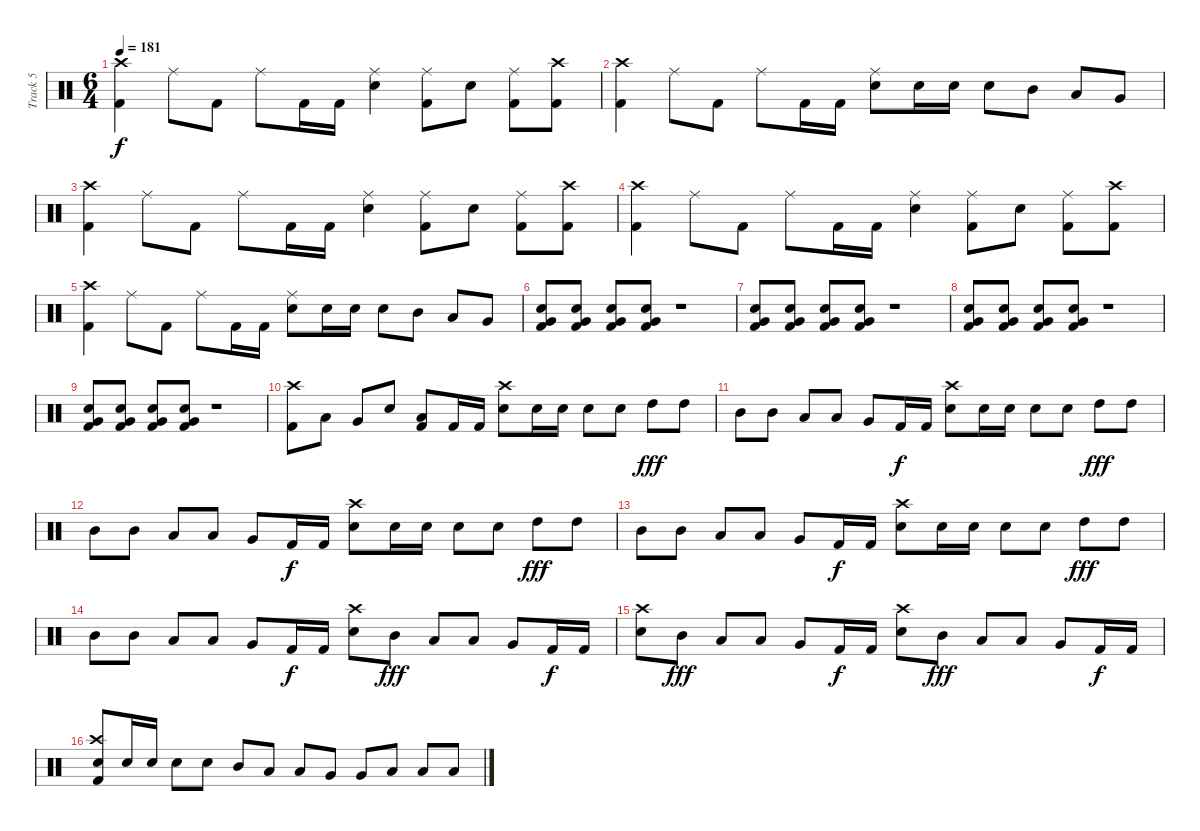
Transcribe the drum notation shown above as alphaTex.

\track ("Track 5" "Track 5") {instrument percussion}
\staff {score}
\articulation defaults
\ts (6 4)
\tempo 181
\clef neutral
\ks c
("Kick (hit) 2" "Crash high (hit)").4{dy f} "Ride (middle)".8 "Kick (hit) 2".8 "Ride (middle)".8 "Kick (hit) 2".16 "Kick (hit) 2".16 ("Electric Snare (hit)" "Ride (middle)").4 ("Ride (middle)" "Kick (hit) 2").8 "Electric Snare (hit)".8 ("Ride (middle)" "Kick (hit) 2").8 ("Kick (hit) 2" "Crash high (hit)").8 |
("Kick (hit) 2" "Crash high (hit)").4 "Ride (middle)".8 "Kick (hit) 2".8 "Ride (middle)".8 "Kick (hit) 2".16 "Kick (hit) 2".16 ("Electric Snare (hit)" "Ride (middle)").8 "Electric Snare (hit)".16 "Electric Snare (hit)".16 "Electric Snare (hit)".8 "Mid Tom (hit)".8 "Low Tom (hit)".8 "Very Low Tom (hit)".8 |
("Kick (hit) 2" "Crash high (hit)").4 "Ride (middle)".8 "Kick (hit) 2".8 "Ride (middle)".8 "Kick (hit) 2".16 "Kick (hit) 2".16 ("Electric Snare (hit)" "Ride (middle)").4 ("Ride (middle)" "Kick (hit) 2").8 "Electric Snare (hit)".8 ("Ride (middle)" "Kick (hit) 2").8 ("Kick (hit) 2" "Crash high (hit)").8 |
("Kick (hit) 2" "Crash high (hit)").4 "Ride (middle)".8 "Kick (hit) 2".8 "Ride (middle)".8 "Kick (hit) 2".16 "Kick (hit) 2".16 ("Electric Snare (hit)" "Ride (middle)").4 ("Ride (middle)" "Kick (hit) 2").8 "Electric Snare (hit)".8 ("Ride (middle)" "Kick (hit) 2").8 ("Kick (hit) 2" "Crash high (hit)").8 |
("Kick (hit) 2" "Crash high (hit)").4 "Ride (middle)".8 "Kick (hit) 2".8 "Ride (middle)".8 "Kick (hit) 2".16 "Kick (hit) 2".16 ("Electric Snare (hit)" "Ride (middle)").8 "Electric Snare (hit)".16 "Electric Snare (hit)".16 "Electric Snare (hit)".8 "Mid Tom (hit)".8 "Low Tom (hit)".8 "Very Low Tom (hit)".8 |
("Electric Snare (hit)" "Kick (hit) 2" "Very Low Tom (hit)").8 ("Electric Snare (hit)" "Very Low Tom (hit)" "Kick (hit) 2").8 ("Electric Snare (hit)" "Kick (hit) 2" "Very Low Tom (hit)").8 ("Electric Snare (hit)" "Kick (hit) 2" "Very Low Tom (hit)").8 r.1 |
("Electric Snare (hit)" "Kick (hit) 2" "Very Low Tom (hit)").8 ("Electric Snare (hit)" "Very Low Tom (hit)" "Kick (hit) 2").8 ("Electric Snare (hit)" "Kick (hit) 2" "Very Low Tom (hit)").8 ("Electric Snare (hit)" "Kick (hit) 2" "Very Low Tom (hit)").8 r.1 |
("Electric Snare (hit)" "Kick (hit) 2" "Very Low Tom (hit)").8 ("Electric Snare (hit)" "Very Low Tom (hit)" "Kick (hit) 2").8 ("Electric Snare (hit)" "Kick (hit) 2" "Very Low Tom (hit)").8 ("Electric Snare (hit)" "Kick (hit) 2" "Very Low Tom (hit)").8 r.1 |
("Electric Snare (hit)" "Kick (hit) 2" "Very Low Tom (hit)").8 ("Electric Snare (hit)" "Very Low Tom (hit)" "Kick (hit) 2").8 ("Electric Snare (hit)" "Kick (hit) 2" "Very Low Tom (hit)").8 ("Electric Snare (hit)" "Kick (hit) 2" "Very Low Tom (hit)").8 r.1 |
("Crash high (hit)" "Kick (hit) 2").8 "Low Tom (hit)".8 "Very Low Tom (hit)".8 "Electric Snare (hit)".8 ("Kick (hit) 2" "Low Floor Tom (hit)").8 "Kick (hit) 2".16 "Kick (hit) 2".16 ("Electric Snare (hit)" "Crash high (hit)").8 "Electric Snare (hit)".16 "Electric Snare (hit)".16 "Electric Snare (hit)".8 "Electric Snare (hit)".8 "High Tom (hit)".8{dy fff} "High Tom (hit)".8 |
"Mid Tom (hit)".8 "Mid Tom (hit)".8 "Low Tom (hit)".8 "Low Tom (hit)".8 "Very Low Tom (hit)".8 "Kick (hit) 2".16{dy f} "Kick (hit) 2".16 ("Electric Snare (hit)" "Crash high (hit)").8 "Electric Snare (hit)".16 "Electric Snare (hit)".16 "Electric Snare (hit)".8 "Electric Snare (hit)".8 "High Tom (hit)".8{dy fff} "High Tom (hit)".8 |
"Mid Tom (hit)".8 "Mid Tom (hit)".8 "Low Tom (hit)".8 "Low Tom (hit)".8 "Very Low Tom (hit)".8 "Kick (hit) 2".16{dy f} "Kick (hit) 2".16 ("Electric Snare (hit)" "Crash high (hit)").8 "Electric Snare (hit)".16 "Electric Snare (hit)".16 "Electric Snare (hit)".8 "Electric Snare (hit)".8 "High Tom (hit)".8{dy fff} "High Tom (hit)".8 |
"Mid Tom (hit)".8 "Mid Tom (hit)".8 "Low Tom (hit)".8 "Low Tom (hit)".8 "Very Low Tom (hit)".8 "Kick (hit) 2".16{dy f} "Kick (hit) 2".16 ("Electric Snare (hit)" "Crash high (hit)").8 "Electric Snare (hit)".16 "Electric Snare (hit)".16 "Electric Snare (hit)".8 "Electric Snare (hit)".8 "High Tom (hit)".8{dy fff} "High Tom (hit)".8 |
"Mid Tom (hit)".8 "Mid Tom (hit)".8 "Low Tom (hit)".8 "Low Tom (hit)".8 "Very Low Tom (hit)".8 "Kick (hit) 2".16{dy f} "Kick (hit) 2".16 ("Electric Snare (hit)" "Crash high (hit)").8 "Mid Tom (hit)".8{dy fff} "Low Tom (hit)".8 "Low Tom (hit)".8 "Very Low Tom (hit)".8 "Kick (hit) 2".16{dy f} "Kick (hit) 2".16 |
("Electric Snare (hit)" "Crash high (hit)").8 "Mid Tom (hit)".8{dy fff} "Low Tom (hit)".8 "Low Tom (hit)".8 "Very Low Tom (hit)".8 "Kick (hit) 2".16{dy f} "Kick (hit) 2".16 ("Electric Snare (hit)" "Crash high (hit)").8 "Mid Tom (hit)".8{dy fff} "Low Tom (hit)".8 "Low Tom (hit)".8 "Very Low Tom (hit)".8 "Kick (hit) 2".16{dy f} "Kick (hit) 2".16 |
("Kick (hit) 2" "Crash high (hit)" "Electric Snare (hit)").8 "Electric Snare (hit)".16 "Electric Snare (hit)".16 "Electric Snare (hit)".8 "Electric Snare (hit)".8 "Mid Tom (hit)".8 "Low Tom (hit)".8 "Low Tom (hit)".8 "Very Low Tom (hit)".8 "Very Low Tom (hit)".8 "Low Floor Tom (hit)".8 "Low Floor Tom (hit)".8 "Low Floor Tom (hit)".8
